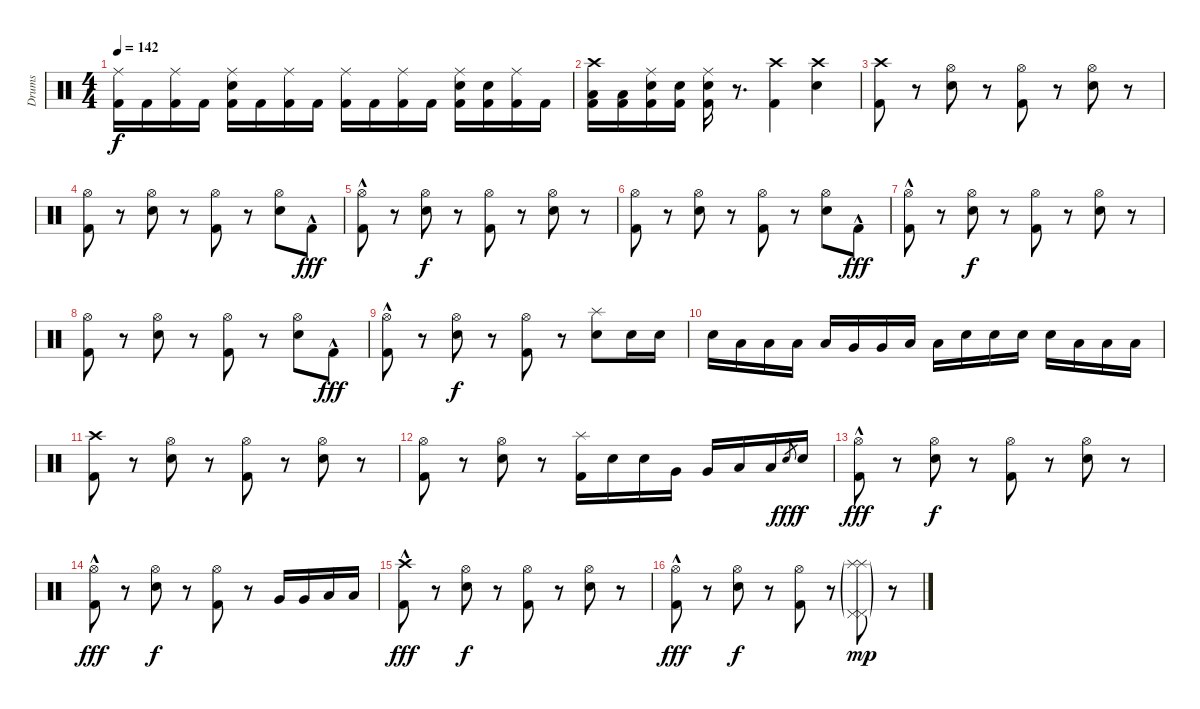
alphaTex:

\track ("Drums" "Drums") {instrument percussion}
\staff {score}
\articulation defaults
\ts (4 4)
\tempo 142
\clef neutral
\ks c
("Ride (middle)" "Kick (hit) 2").16{dy f} "Kick (hit) 2".16 ("Ride (middle)" "Kick (hit) 2").16 "Kick (hit) 2".16 ("Ride (middle)" "Electric Snare (hit)" "Kick (hit) 2").16 "Kick (hit) 2".16 ("Ride (middle)" "Kick (hit) 2").16 "Kick (hit) 2".16 ("Ride (middle)" "Kick (hit) 2").16 "Kick (hit) 2".16 ("Ride (middle)" "Kick (hit) 2").16 "Kick (hit) 2".16 ("Ride (middle)" "Electric Snare (hit)" "Kick (hit) 2").16 ("Electric Snare (hit)" "Kick (hit) 2").16 ("Ride (middle)" "Kick (hit) 2").16 "Kick (hit) 2".16 |
("Crash high (hit)" "Low Floor Tom (hit)" "Kick (hit) 2").16 ("Low Floor Tom (hit)" "Kick (hit) 2").16 ("Ride (middle)" "Electric Snare (hit)" "Kick (hit) 2").16 ("Electric Snare (hit)" "Kick (hit) 2").16 ("Ride (middle)" "Snare (hit) 2" "Kick (hit) 2").16 r.8{d} ("Crash high (hit)" "Kick (hit) 2").4 ("Crash high (hit)" "Electric Snare (hit)").4 |
("Crash high (hit)" "Kick (hit) 2").8 r.8 ("Hi-Hat (open)" "Electric Snare (hit)").8 r.8 ("Hi-Hat (open)" "Kick (hit) 2").8 r.8 ("Hi-Hat (open)" "Electric Snare (hit)").8 r.8 |
("Hi-Hat (open)" "Kick (hit) 2").8 r.8 ("Hi-Hat (open)" "Electric Snare (hit)").8 r.8 ("Hi-Hat (open)" "Kick (hit) 2").8 r.8 ("Hi-Hat (open)" "Electric Snare (hit)").8 "Kick (hit) 2"{hac}.8{dy fff} |
("Hi-Hat (open)" "Kick (hit) 2"{hac}).8 r.8 ("Hi-Hat (open)" "Electric Snare (hit)").8{dy f} r.8 ("Hi-Hat (open)" "Kick (hit) 2").8 r.8 ("Hi-Hat (open)" "Electric Snare (hit)").8 r.8 |
("Hi-Hat (open)" "Kick (hit) 2").8 r.8 ("Hi-Hat (open)" "Electric Snare (hit)").8 r.8 ("Hi-Hat (open)" "Kick (hit) 2").8 r.8 ("Hi-Hat (open)" "Electric Snare (hit)").8 "Kick (hit) 2"{hac}.8{dy fff} |
("Hi-Hat (open)" "Kick (hit) 2"{hac}).8 r.8 ("Hi-Hat (open)" "Electric Snare (hit)").8{dy f} r.8 ("Hi-Hat (open)" "Kick (hit) 2").8 r.8 ("Hi-Hat (open)" "Electric Snare (hit)").8 r.8 |
("Hi-Hat (open)" "Kick (hit) 2").8 r.8 ("Hi-Hat (open)" "Electric Snare (hit)").8 r.8 ("Hi-Hat (open)" "Kick (hit) 2").8 r.8 ("Hi-Hat (open)" "Electric Snare (hit)").8 "Kick (hit) 2"{hac}.8{dy fff} |
("Hi-Hat (open)" "Kick (hit) 2"{hac}).8 r.8 ("Hi-Hat (open)" "Electric Snare (hit)").8{dy f} r.8 ("Hi-Hat (open)" "Kick (hit) 2").8 r.8 ("Splash (hit)" "Electric Snare (hit)").8 "Electric Snare (hit)".16 "Snare (hit) 2".16 |
"Snare (hit) 2".16 "Low Tom (hit)".16 "Low Tom (hit)".16 "Low Floor Tom (hit)".16 "Low Floor Tom (hit)".16 "Very Low Tom (hit)".16 "Very Low Tom (hit)".16 "Low Floor Tom (hit)".16 "Low Floor Tom (hit)".16 "Electric Snare (hit)".16 "Electric Snare (hit)".16 "Snare (hit) 2".16 "Snare (hit) 2".16 "Low Floor Tom (hit)".16 "Low Floor Tom (hit)".16 "Low Floor Tom (hit)".16 |
("Crash high (hit)" "Kick (hit) 2").8 r.8 ("Hi-Hat (open)" "Electric Snare (hit)").8 r.8 ("Hi-Hat (open)" "Kick (hit) 2").8 r.8 ("Hi-Hat (open)" "Electric Snare (hit)").8 r.8 |
("Hi-Hat (open)" "Kick (hit) 2").8 r.8 ("Hi-Hat (open)" "Electric Snare (hit)").8 r.8 ("Splash (hit)" "Kick (hit) 2").16 "Electric Snare (hit)".16 "Electric Snare (hit)".16 "Very Low Tom (hit)".16 "Very Low Tom (hit)".16 "Low Floor Tom (hit)".16 "Low Floor Tom (hit)".16 "Snare (hit) 2".8{gr dy fff} "Snare (hit) 2".16{dy f} |
("Hi-Hat (open)" "Kick (hit) 2"{hac}).8{dy fff} r.8 ("Hi-Hat (open)" "Electric Snare (hit)").8{dy f} r.8 ("Hi-Hat (open)" "Kick (hit) 2").8 r.8 ("Hi-Hat (open)" "Electric Snare (hit)").8 r.8 |
("Hi-Hat (open)" "Kick (hit) 2"{hac}).8{dy fff} r.8 ("Hi-Hat (open)" "Electric Snare (hit)").8{dy f} r.8 ("Hi-Hat (open)" "Kick (hit) 2").8 r.8 "Very Low Tom (hit)".16 "Very Low Tom (hit)".16 "Low Floor Tom (hit)".16 "Low Floor Tom (hit)".16 |
("Crash high (hit)" "Kick (hit) 2"{hac}).8{dy fff} r.8 ("Hi-Hat (open)" "Electric Snare (hit)").8{dy f} r.8 ("Hi-Hat (open)" "Kick (hit) 2").8 r.8 ("Hi-Hat (open)" "Electric Snare (hit)").8 r.8 |
("Hi-Hat (open)" "Kick (hit) 2"{hac}).8{dy fff} r.8 ("Hi-Hat (open)" "Electric Snare (hit)").8{dy f} r.8 ("Hi-Hat (open)" "Kick (hit) 2").8 r.8 ("Splash (hit)"{g} "Pedal Hi-Hat (hit)"{g} "Pedal Hi-Hat (hit)"{g} "Splash (hit)"{g}).8{dy mp} r.8
